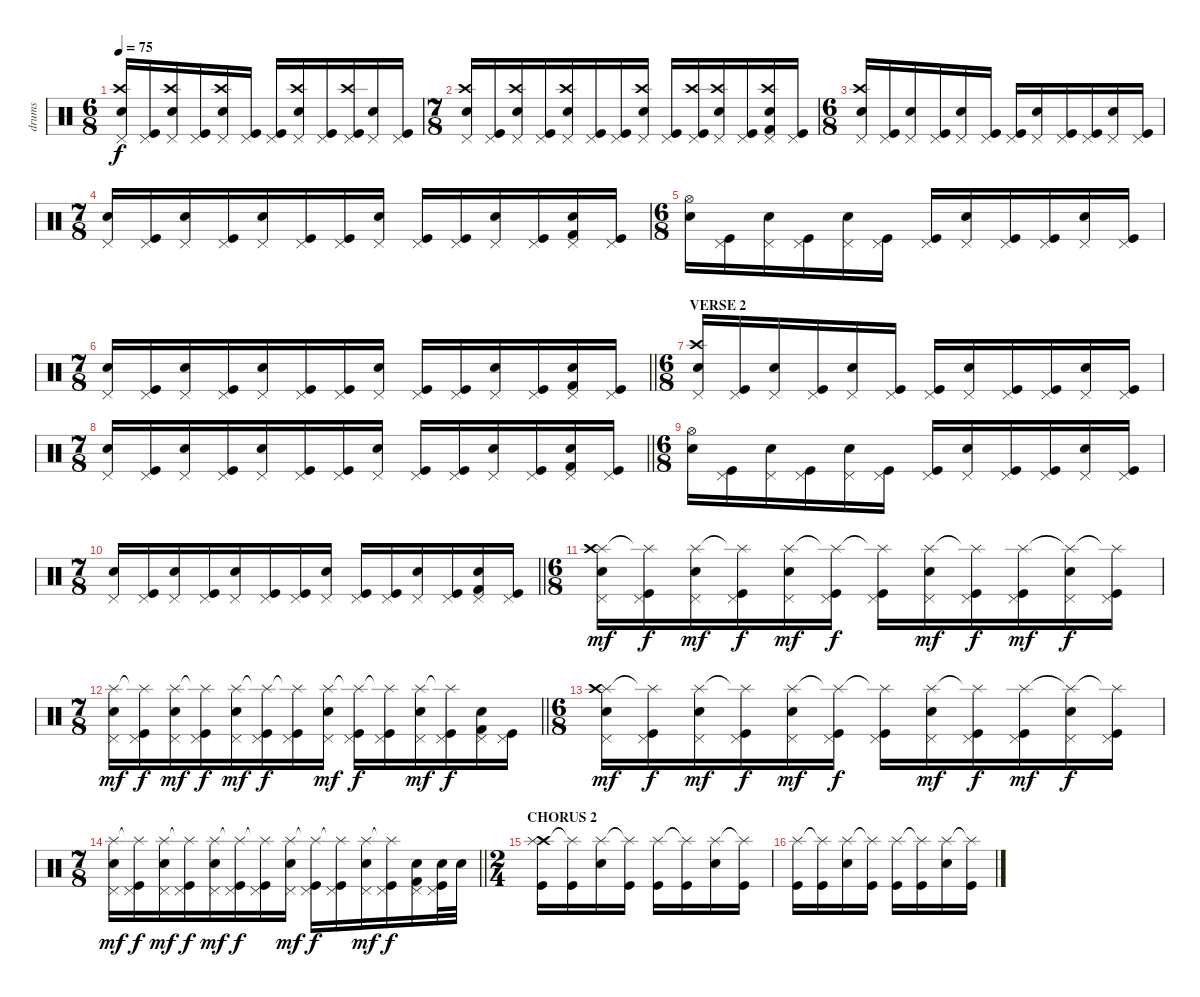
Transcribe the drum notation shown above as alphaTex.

\track ("drums" "drums") {instrument percussion}
\staff {score}
\articulation defaults
\ts (6 8)
\tempo 75
\clef neutral
\ks c
("Pedal Hi-Hat (hit)" "Crash high (hit)" "Electric Snare (hit)").16{dy f} ("Pedal Hi-Hat (hit)" "Kick (hit)").16 ("Pedal Hi-Hat (hit)" "Crash high (hit)" "Electric Snare (hit)").16 ("Pedal Hi-Hat (hit)" "Kick (hit)").16 ("Pedal Hi-Hat (hit)" "Crash high (hit)" "Electric Snare (hit)").16 ("Pedal Hi-Hat (hit)" "Kick (hit)").16 ("Pedal Hi-Hat (hit)" "Kick (hit)").16 ("Pedal Hi-Hat (hit)" "Crash high (hit)" "Electric Snare (hit)").16 ("Pedal Hi-Hat (hit)" "Kick (hit)").16 ("Pedal Hi-Hat (hit)" "Crash high (hit)" "Kick (hit)").16 ("Pedal Hi-Hat (hit)" "Electric Snare (hit)").16 ("Pedal Hi-Hat (hit)" "Kick (hit)").16 |
\ts (7 8)
("Pedal Hi-Hat (hit)" "Crash high (hit)" "Electric Snare (hit)").16 ("Pedal Hi-Hat (hit)" "Kick (hit)").16 ("Pedal Hi-Hat (hit)" "Crash high (hit)" "Electric Snare (hit)").16 ("Pedal Hi-Hat (hit)" "Kick (hit)").16 ("Pedal Hi-Hat (hit)" "Crash high (hit)" "Electric Snare (hit)").16 ("Pedal Hi-Hat (hit)" "Kick (hit)").16 ("Pedal Hi-Hat (hit)" "Kick (hit)").16 ("Pedal Hi-Hat (hit)" "Crash high (hit)" "Electric Snare (hit)").16 ("Pedal Hi-Hat (hit)" "Kick (hit)").16 ("Pedal Hi-Hat (hit)" "Crash high (hit)" "Kick (hit)").16 ("Pedal Hi-Hat (hit)" "Crash high (hit)" "Electric Snare (hit)").16 ("Pedal Hi-Hat (hit)" "Kick (hit)").16 ("Pedal Hi-Hat (hit)" "Crash high (hit)" "Electric Snare (hit)" "Kick (hit) 2").16 ("Pedal Hi-Hat (hit)" "Kick (hit)").16 |
\ts (6 8)
("Pedal Hi-Hat (hit)" "Crash high (hit)" "Electric Snare (hit)").16 ("Pedal Hi-Hat (hit)" "Kick (hit)").16 ("Pedal Hi-Hat (hit)" "Electric Snare (hit)").16 ("Pedal Hi-Hat (hit)" "Kick (hit)").16 ("Pedal Hi-Hat (hit)" "Electric Snare (hit)").16 ("Pedal Hi-Hat (hit)" "Kick (hit)").16 ("Pedal Hi-Hat (hit)" "Kick (hit)").16 ("Pedal Hi-Hat (hit)" "Electric Snare (hit)").16 ("Pedal Hi-Hat (hit)" "Kick (hit)").16 ("Pedal Hi-Hat (hit)" "Kick (hit)").16 ("Pedal Hi-Hat (hit)" "Electric Snare (hit)").16 ("Pedal Hi-Hat (hit)" "Kick (hit)").16 |
\ts (7 8)
("Pedal Hi-Hat (hit)" "Electric Snare (hit)").16 ("Pedal Hi-Hat (hit)" "Kick (hit)").16 ("Pedal Hi-Hat (hit)" "Electric Snare (hit)").16 ("Pedal Hi-Hat (hit)" "Kick (hit)").16 ("Pedal Hi-Hat (hit)" "Electric Snare (hit)").16 ("Pedal Hi-Hat (hit)" "Kick (hit)").16 ("Pedal Hi-Hat (hit)" "Kick (hit)").16 ("Pedal Hi-Hat (hit)" "Electric Snare (hit)").16 ("Pedal Hi-Hat (hit)" "Kick (hit)").16 ("Pedal Hi-Hat (hit)" "Kick (hit)").16 ("Pedal Hi-Hat (hit)" "Electric Snare (hit)").16 ("Pedal Hi-Hat (hit)" "Kick (hit)").16 ("Pedal Hi-Hat (hit)" "Electric Snare (hit)" "Kick (hit) 2").16 ("Pedal Hi-Hat (hit)" "Kick (hit)").16 |
\ts (6 8)
("Hi-Hat (open)" "Electric Snare (hit)").16 ("Pedal Hi-Hat (hit)" "Kick (hit)").16 ("Pedal Hi-Hat (hit)" "Electric Snare (hit)").16 ("Pedal Hi-Hat (hit)" "Kick (hit)").16 ("Pedal Hi-Hat (hit)" "Electric Snare (hit)").16 ("Pedal Hi-Hat (hit)" "Kick (hit)").16 ("Pedal Hi-Hat (hit)" "Kick (hit)").16 ("Pedal Hi-Hat (hit)" "Electric Snare (hit)").16 ("Pedal Hi-Hat (hit)" "Kick (hit)").16 ("Pedal Hi-Hat (hit)" "Kick (hit)").16 ("Pedal Hi-Hat (hit)" "Electric Snare (hit)").16 ("Pedal Hi-Hat (hit)" "Kick (hit)").16 |
\ts (7 8)
\barLineRight lightlight
("Pedal Hi-Hat (hit)" "Electric Snare (hit)").16 ("Pedal Hi-Hat (hit)" "Kick (hit)").16 ("Pedal Hi-Hat (hit)" "Electric Snare (hit)").16 ("Pedal Hi-Hat (hit)" "Kick (hit)").16 ("Pedal Hi-Hat (hit)" "Electric Snare (hit)").16 ("Pedal Hi-Hat (hit)" "Kick (hit)").16 ("Pedal Hi-Hat (hit)" "Kick (hit)").16 ("Pedal Hi-Hat (hit)" "Electric Snare (hit)").16 ("Pedal Hi-Hat (hit)" "Kick (hit)").16 ("Pedal Hi-Hat (hit)" "Kick (hit)").16 ("Pedal Hi-Hat (hit)" "Electric Snare (hit)").16 ("Pedal Hi-Hat (hit)" "Kick (hit)").16 ("Pedal Hi-Hat (hit)" "Electric Snare (hit)" "Kick (hit) 2").16 ("Pedal Hi-Hat (hit)" "Kick (hit)").16 |
\ts (6 8)
\section ("" "VERSE 2")
("Pedal Hi-Hat (hit)" "Crash high (hit)" "Electric Snare (hit)").16 ("Pedal Hi-Hat (hit)" "Kick (hit)").16 ("Pedal Hi-Hat (hit)" "Electric Snare (hit)").16 ("Pedal Hi-Hat (hit)" "Kick (hit)").16 ("Pedal Hi-Hat (hit)" "Electric Snare (hit)").16 ("Pedal Hi-Hat (hit)" "Kick (hit)").16 ("Pedal Hi-Hat (hit)" "Kick (hit)").16 ("Pedal Hi-Hat (hit)" "Electric Snare (hit)").16 ("Pedal Hi-Hat (hit)" "Kick (hit)").16 ("Pedal Hi-Hat (hit)" "Kick (hit)").16 ("Pedal Hi-Hat (hit)" "Electric Snare (hit)").16 ("Pedal Hi-Hat (hit)" "Kick (hit)").16 |
\ts (7 8)
\barLineRight lightlight
("Pedal Hi-Hat (hit)" "Electric Snare (hit)").16 ("Pedal Hi-Hat (hit)" "Kick (hit)").16 ("Pedal Hi-Hat (hit)" "Electric Snare (hit)").16 ("Pedal Hi-Hat (hit)" "Kick (hit)").16 ("Pedal Hi-Hat (hit)" "Electric Snare (hit)").16 ("Pedal Hi-Hat (hit)" "Kick (hit)").16 ("Pedal Hi-Hat (hit)" "Kick (hit)").16 ("Pedal Hi-Hat (hit)" "Electric Snare (hit)").16 ("Pedal Hi-Hat (hit)" "Kick (hit)").16 ("Pedal Hi-Hat (hit)" "Kick (hit)").16 ("Pedal Hi-Hat (hit)" "Electric Snare (hit)").16 ("Pedal Hi-Hat (hit)" "Kick (hit)").16 ("Pedal Hi-Hat (hit)" "Electric Snare (hit)" "Kick (hit) 2").16 ("Pedal Hi-Hat (hit)" "Kick (hit)").16 |
\ts (6 8)
("Hi-Hat (open)" "Electric Snare (hit)").16 ("Pedal Hi-Hat (hit)" "Kick (hit)").16 ("Pedal Hi-Hat (hit)" "Electric Snare (hit)").16 ("Pedal Hi-Hat (hit)" "Kick (hit)").16 ("Pedal Hi-Hat (hit)" "Electric Snare (hit)").16 ("Pedal Hi-Hat (hit)" "Kick (hit)").16 ("Pedal Hi-Hat (hit)" "Kick (hit)").16 ("Pedal Hi-Hat (hit)" "Electric Snare (hit)").16 ("Pedal Hi-Hat (hit)" "Kick (hit)").16 ("Pedal Hi-Hat (hit)" "Kick (hit)").16 ("Pedal Hi-Hat (hit)" "Electric Snare (hit)").16 ("Pedal Hi-Hat (hit)" "Kick (hit)").16 |
\ts (7 8)
\barLineRight lightlight
("Pedal Hi-Hat (hit)" "Electric Snare (hit)").16 ("Pedal Hi-Hat (hit)" "Kick (hit)").16 ("Pedal Hi-Hat (hit)" "Electric Snare (hit)").16 ("Pedal Hi-Hat (hit)" "Kick (hit)").16 ("Pedal Hi-Hat (hit)" "Electric Snare (hit)").16 ("Pedal Hi-Hat (hit)" "Kick (hit)").16 ("Pedal Hi-Hat (hit)" "Kick (hit)").16 ("Pedal Hi-Hat (hit)" "Electric Snare (hit)").16 ("Pedal Hi-Hat (hit)" "Kick (hit)").16 ("Pedal Hi-Hat (hit)" "Kick (hit)").16 ("Pedal Hi-Hat (hit)" "Electric Snare (hit)").16 ("Pedal Hi-Hat (hit)" "Kick (hit)").16 ("Pedal Hi-Hat (hit)" "Electric Snare (hit)" "Kick (hit) 2").16 ("Pedal Hi-Hat (hit)" "Kick (hit)").16 |
\ts (6 8)
("Pedal Hi-Hat (hit)" "Splash (hit)" "Electric Snare (hit)" "Crash high (hit)").16{dy mf} ("Pedal Hi-Hat (hit)" "Splash (hit)"{t} "Kick (hit)").16{dy f} ("Pedal Hi-Hat (hit)" "Splash (hit)" "Electric Snare (hit)").16{dy mf} ("Pedal Hi-Hat (hit)" "Splash (hit)"{t} "Kick (hit)").16{dy f} ("Pedal Hi-Hat (hit)" "Splash (hit)" "Electric Snare (hit)").16{dy mf} ("Pedal Hi-Hat (hit)" "Splash (hit)"{t} "Kick (hit)").16{dy f} ("Pedal Hi-Hat (hit)" "Splash (hit)"{t} "Kick (hit)").16 ("Pedal Hi-Hat (hit)" "Splash (hit)" "Electric Snare (hit)").16{dy mf} ("Pedal Hi-Hat (hit)" "Splash (hit)"{t} "Kick (hit)").16{dy f} ("Pedal Hi-Hat (hit)" "Splash (hit)" "Kick (hit)").16{dy mf} ("Pedal Hi-Hat (hit)" "Splash (hit)"{t} "Electric Snare (hit)").16{dy f} ("Pedal Hi-Hat (hit)" "Splash (hit)"{t} "Kick (hit)").16 |
\ts (7 8)
\barLineRight lightlight
("Pedal Hi-Hat (hit)" "Splash (hit)" "Electric Snare (hit)").16{dy mf} ("Pedal Hi-Hat (hit)" "Splash (hit)"{t} "Kick (hit)").16{dy f} ("Pedal Hi-Hat (hit)" "Splash (hit)" "Electric Snare (hit)").16{dy mf} ("Pedal Hi-Hat (hit)" "Splash (hit)"{t} "Kick (hit)").16{dy f} ("Pedal Hi-Hat (hit)" "Splash (hit)" "Electric Snare (hit)").16{dy mf} ("Pedal Hi-Hat (hit)" "Splash (hit)"{t} "Kick (hit)").16{dy f} ("Pedal Hi-Hat (hit)" "Splash (hit)"{t} "Kick (hit)").16 ("Pedal Hi-Hat (hit)" "Splash (hit)" "Electric Snare (hit)").16{dy mf} ("Pedal Hi-Hat (hit)" "Splash (hit)"{t} "Kick (hit)").16{dy f} ("Pedal Hi-Hat (hit)" "Splash (hit)"{t} "Kick (hit)").16 ("Pedal Hi-Hat (hit)" "Splash (hit)" "Electric Snare (hit)").16{dy mf} ("Pedal Hi-Hat (hit)" "Splash (hit)"{t} "Kick (hit)").16{dy f} ("Pedal Hi-Hat (hit)" "Electric Snare (hit)" "Kick (hit) 2").16 ("Pedal Hi-Hat (hit)" "Kick (hit)").16 |
\ts (6 8)
("Pedal Hi-Hat (hit)" "Splash (hit)" "Electric Snare (hit)" "Crash high (hit)").16{dy mf} ("Pedal Hi-Hat (hit)" "Splash (hit)"{t} "Kick (hit)").16{dy f} ("Pedal Hi-Hat (hit)" "Splash (hit)" "Electric Snare (hit)").16{dy mf} ("Pedal Hi-Hat (hit)" "Splash (hit)"{t} "Kick (hit)").16{dy f} ("Pedal Hi-Hat (hit)" "Splash (hit)" "Electric Snare (hit)").16{dy mf} ("Pedal Hi-Hat (hit)" "Splash (hit)"{t} "Kick (hit)").16{dy f} ("Pedal Hi-Hat (hit)" "Splash (hit)"{t} "Kick (hit)").16 ("Pedal Hi-Hat (hit)" "Splash (hit)" "Electric Snare (hit)").16{dy mf} ("Pedal Hi-Hat (hit)" "Splash (hit)"{t} "Kick (hit)").16{dy f} ("Pedal Hi-Hat (hit)" "Splash (hit)" "Kick (hit)").16{dy mf} ("Pedal Hi-Hat (hit)" "Splash (hit)"{t} "Electric Snare (hit)").16{dy f} ("Pedal Hi-Hat (hit)" "Splash (hit)"{t} "Kick (hit)").16 |
\ts (7 8)
\barLineRight lightlight
("Pedal Hi-Hat (hit)" "Splash (hit)" "Electric Snare (hit)").16{dy mf} ("Pedal Hi-Hat (hit)" "Splash (hit)"{t} "Kick (hit)").16{dy f} ("Pedal Hi-Hat (hit)" "Splash (hit)" "Electric Snare (hit)").16{dy mf} ("Pedal Hi-Hat (hit)" "Splash (hit)"{t} "Kick (hit)").16{dy f} ("Pedal Hi-Hat (hit)" "Splash (hit)" "Electric Snare (hit)").16{dy mf} ("Pedal Hi-Hat (hit)" "Splash (hit)"{t} "Kick (hit)").16{dy f} ("Pedal Hi-Hat (hit)" "Splash (hit)"{t} "Kick (hit)").16 ("Pedal Hi-Hat (hit)" "Splash (hit)" "Electric Snare (hit)").16{dy mf} ("Pedal Hi-Hat (hit)" "Splash (hit)"{t} "Kick (hit)").16{dy f} ("Pedal Hi-Hat (hit)" "Splash (hit)"{t} "Kick (hit)").16 ("Pedal Hi-Hat (hit)" "Splash (hit)" "Electric Snare (hit)").16{dy mf} ("Pedal Hi-Hat (hit)" "Splash (hit)"{t} "Kick (hit)").16{dy f} ("Pedal Hi-Hat (hit)" "Electric Snare (hit)" "Kick (hit) 2").16 ("Pedal Hi-Hat (hit)" "Electric Snare (hit)" "Kick (hit)").32 "Electric Snare (hit)".32 |
\ts (2 4)
\section ("" "CHORUS 2")
("Crash high (hit)" "Splash (hit)" "Kick (hit)").16 ("Splash (hit)"{t} "Kick (hit)").16 ("Splash (hit)" "Electric Snare (hit)").16 ("Splash (hit)"{t} "Kick (hit)").16 ("Splash (hit)" "Kick (hit)").16 ("Splash (hit)"{t} "Kick (hit)").16 ("Splash (hit)" "Electric Snare (hit)").16 ("Splash (hit)"{t} "Kick (hit)").16 |
("Splash (hit)" "Kick (hit)").16 ("Splash (hit)"{t} "Kick (hit)").16 ("Splash (hit)" "Electric Snare (hit)").16 ("Splash (hit)"{t} "Kick (hit)").16 ("Splash (hit)" "Kick (hit)").16 ("Splash (hit)"{t} "Kick (hit)").16 ("Splash (hit)" "Electric Snare (hit)").16 ("Splash (hit)"{t} "Kick (hit)").16
